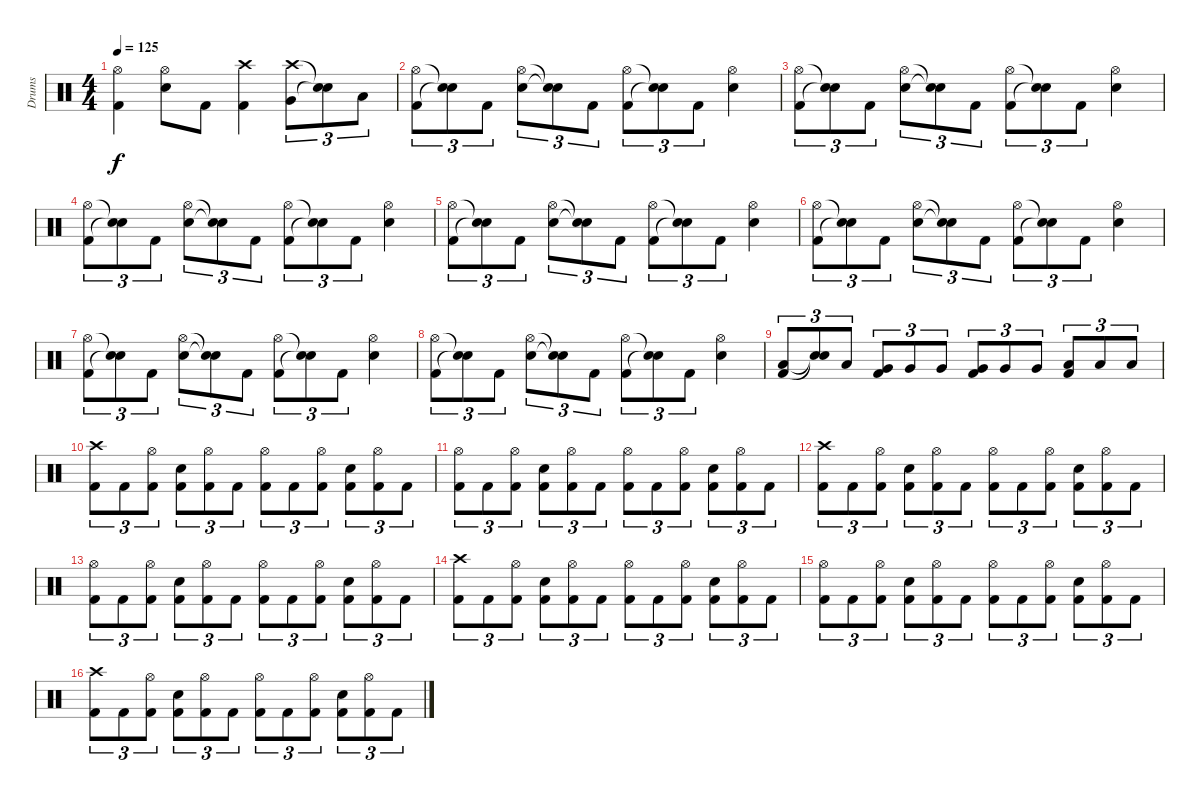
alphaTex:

\track ("Drums" "Drums") {instrument percussion}
\staff {score}
\articulation defaults
\ts (4 4)
\tempo 125
\clef neutral
\ks c
("Hi-Hat (open)" "Kick (hit) 2").4{dy f} ("Hi-Hat (open)" "Snare (hit) 2").8 "Kick (hit) 2".8 ("Crash high (hit)" "Kick (hit) 2").4 ("Crash high (hit)" "Very Low Tom (hit)").8{tu (3 2)} ("Snare (hit)"{t} "Snare (hit)"{t}).8{tu (3 2)} "Low Floor Tom (hit)".8{tu (3 2)} |
("Hi-Hat (open)" "Kick (hit) 2").8{tu (3 2)} ("Snare (hit)"{t} "Snare (hit)"{t}).8{tu (3 2)} "Kick (hit) 2".8{tu (3 2)} ("Hi-Hat (open)" "Snare (hit) 2").8{tu (3 2)} ("Snare (hit)"{t} "Snare (hit)"{t}).8{tu (3 2)} "Kick (hit) 2".8{tu (3 2)} ("Hi-Hat (open)" "Kick (hit) 2").8{tu (3 2)} ("Snare (hit)"{t} "Snare (hit)"{t}).8{tu (3 2)} "Kick (hit) 2".8{tu (3 2)} ("Hi-Hat (open)" "Snare (hit) 2").4 |
("Hi-Hat (open)" "Kick (hit) 2").8{tu (3 2)} ("Snare (hit)"{t} "Snare (hit)"{t}).8{tu (3 2)} "Kick (hit) 2".8{tu (3 2)} ("Hi-Hat (open)" "Snare (hit) 2").8{tu (3 2)} ("Snare (hit)"{t} "Snare (hit)"{t}).8{tu (3 2)} "Kick (hit) 2".8{tu (3 2)} ("Hi-Hat (open)" "Kick (hit) 2").8{tu (3 2)} ("Snare (hit)"{t} "Snare (hit)"{t}).8{tu (3 2)} "Kick (hit) 2".8{tu (3 2)} ("Hi-Hat (open)" "Snare (hit) 2").4 |
("Hi-Hat (open)" "Kick (hit) 2").8{tu (3 2)} ("Snare (hit)"{t} "Snare (hit)"{t}).8{tu (3 2)} "Kick (hit) 2".8{tu (3 2)} ("Hi-Hat (open)" "Snare (hit) 2").8{tu (3 2)} ("Snare (hit)"{t} "Snare (hit)"{t}).8{tu (3 2)} "Kick (hit) 2".8{tu (3 2)} ("Hi-Hat (open)" "Kick (hit) 2").8{tu (3 2)} ("Snare (hit)"{t} "Snare (hit)"{t}).8{tu (3 2)} "Kick (hit) 2".8{tu (3 2)} ("Hi-Hat (open)" "Snare (hit) 2").4 |
("Hi-Hat (open)" "Kick (hit) 2").8{tu (3 2)} ("Snare (hit)"{t} "Snare (hit)"{t}).8{tu (3 2)} "Kick (hit) 2".8{tu (3 2)} ("Hi-Hat (open)" "Snare (hit) 2").8{tu (3 2)} ("Snare (hit)"{t} "Snare (hit)"{t}).8{tu (3 2)} "Kick (hit) 2".8{tu (3 2)} ("Hi-Hat (open)" "Kick (hit) 2").8{tu (3 2)} ("Snare (hit)"{t} "Snare (hit)"{t}).8{tu (3 2)} "Kick (hit) 2".8{tu (3 2)} ("Hi-Hat (open)" "Snare (hit) 2").4 |
("Hi-Hat (open)" "Kick (hit) 2").8{tu (3 2)} ("Snare (hit)"{t} "Snare (hit)"{t}).8{tu (3 2)} "Kick (hit) 2".8{tu (3 2)} ("Hi-Hat (open)" "Snare (hit) 2").8{tu (3 2)} ("Snare (hit)"{t} "Snare (hit)"{t}).8{tu (3 2)} "Kick (hit) 2".8{tu (3 2)} ("Hi-Hat (open)" "Kick (hit) 2").8{tu (3 2)} ("Snare (hit)"{t} "Snare (hit)"{t}).8{tu (3 2)} "Kick (hit) 2".8{tu (3 2)} ("Hi-Hat (open)" "Snare (hit) 2").4 |
("Hi-Hat (open)" "Kick (hit) 2").8{tu (3 2)} ("Snare (hit)"{t} "Snare (hit)"{t}).8{tu (3 2)} "Kick (hit) 2".8{tu (3 2)} ("Hi-Hat (open)" "Snare (hit) 2").8{tu (3 2)} ("Snare (hit)"{t} "Snare (hit)"{t}).8{tu (3 2)} "Kick (hit) 2".8{tu (3 2)} ("Hi-Hat (open)" "Kick (hit) 2").8{tu (3 2)} ("Snare (hit)"{t} "Snare (hit)"{t}).8{tu (3 2)} "Kick (hit) 2".8{tu (3 2)} ("Hi-Hat (open)" "Snare (hit) 2").4 |
("Hi-Hat (open)" "Kick (hit) 2").8{tu (3 2)} ("Snare (hit)"{t} "Snare (hit)"{t}).8{tu (3 2)} "Kick (hit) 2".8{tu (3 2)} ("Hi-Hat (open)" "Snare (hit) 2").8{tu (3 2)} ("Snare (hit)"{t} "Snare (hit)"{t}).8{tu (3 2)} "Kick (hit) 2".8{tu (3 2)} ("Hi-Hat (open)" "Kick (hit) 2").8{tu (3 2)} ("Snare (hit)"{t} "Snare (hit)"{t}).8{tu (3 2)} "Kick (hit) 2".8{tu (3 2)} ("Hi-Hat (open)" "Snare (hit) 2").4 |
("Kick (hit) 2" "Low Tom (hit)").8{tu (3 2)} ("Snare (hit)"{t} "Snare (hit)"{t}).8{tu (3 2)} "Low Tom (hit)".8{tu (3 2)} ("Kick (hit) 2" "Very Low Tom (hit)").8{tu (3 2)} "Very Low Tom (hit)".8{tu (3 2)} "Very Low Tom (hit)".8{tu (3 2)} ("Kick (hit) 2" "Very Low Tom (hit)").8{tu (3 2)} "Very Low Tom (hit)".8{tu (3 2)} "Very Low Tom (hit)".8{tu (3 2)} ("Kick (hit) 2" "Low Floor Tom (hit)").8{tu (3 2)} "Low Floor Tom (hit)".8{tu (3 2)} "Low Floor Tom (hit)".8{tu (3 2)} |
("Crash high (hit)" "Kick (hit) 2").8{tu (3 2)} "Kick (hit) 2".8{tu (3 2)} ("Hi-Hat (open)" "Kick (hit) 2").8{tu (3 2)} ("Snare (hit) 2" "Kick (hit) 2").8{tu (3 2)} ("Hi-Hat (open)" "Kick (hit) 2").8{tu (3 2)} "Kick (hit) 2".8{tu (3 2)} ("Hi-Hat (open)" "Kick (hit) 2").8{tu (3 2)} "Kick (hit) 2".8{tu (3 2)} ("Hi-Hat (open)" "Kick (hit) 2").8{tu (3 2)} ("Snare (hit) 2" "Kick (hit) 2").8{tu (3 2)} ("Hi-Hat (open)" "Kick (hit) 2").8{tu (3 2)} "Kick (hit) 2".8{tu (3 2)} |
("Hi-Hat (open)" "Kick (hit) 2").8{tu (3 2)} "Kick (hit) 2".8{tu (3 2)} ("Hi-Hat (open)" "Kick (hit) 2").8{tu (3 2)} ("Snare (hit) 2" "Kick (hit) 2").8{tu (3 2)} ("Hi-Hat (open)" "Kick (hit) 2").8{tu (3 2)} "Kick (hit) 2".8{tu (3 2)} ("Hi-Hat (open)" "Kick (hit) 2").8{tu (3 2)} "Kick (hit) 2".8{tu (3 2)} ("Hi-Hat (open)" "Kick (hit) 2").8{tu (3 2)} ("Snare (hit) 2" "Kick (hit) 2").8{tu (3 2)} ("Hi-Hat (open)" "Kick (hit) 2").8{tu (3 2)} "Kick (hit) 2".8{tu (3 2)} |
("Crash high (hit)" "Kick (hit) 2").8{tu (3 2)} "Kick (hit) 2".8{tu (3 2)} ("Hi-Hat (open)" "Kick (hit) 2").8{tu (3 2)} ("Snare (hit) 2" "Kick (hit) 2").8{tu (3 2)} ("Hi-Hat (open)" "Kick (hit) 2").8{tu (3 2)} "Kick (hit) 2".8{tu (3 2)} ("Hi-Hat (open)" "Kick (hit) 2").8{tu (3 2)} "Kick (hit) 2".8{tu (3 2)} ("Hi-Hat (open)" "Kick (hit) 2").8{tu (3 2)} ("Snare (hit) 2" "Kick (hit) 2").8{tu (3 2)} ("Hi-Hat (open)" "Kick (hit) 2").8{tu (3 2)} "Kick (hit) 2".8{tu (3 2)} |
("Hi-Hat (open)" "Kick (hit) 2").8{tu (3 2)} "Kick (hit) 2".8{tu (3 2)} ("Hi-Hat (open)" "Kick (hit) 2").8{tu (3 2)} ("Snare (hit) 2" "Kick (hit) 2").8{tu (3 2)} ("Hi-Hat (open)" "Kick (hit) 2").8{tu (3 2)} "Kick (hit) 2".8{tu (3 2)} ("Hi-Hat (open)" "Kick (hit) 2").8{tu (3 2)} "Kick (hit) 2".8{tu (3 2)} ("Hi-Hat (open)" "Kick (hit) 2").8{tu (3 2)} ("Snare (hit) 2" "Kick (hit) 2").8{tu (3 2)} ("Hi-Hat (open)" "Kick (hit) 2").8{tu (3 2)} "Kick (hit) 2".8{tu (3 2)} |
("Crash high (hit)" "Kick (hit) 2").8{tu (3 2)} "Kick (hit) 2".8{tu (3 2)} ("Hi-Hat (open)" "Kick (hit) 2").8{tu (3 2)} ("Snare (hit) 2" "Kick (hit) 2").8{tu (3 2)} ("Hi-Hat (open)" "Kick (hit) 2").8{tu (3 2)} "Kick (hit) 2".8{tu (3 2)} ("Hi-Hat (open)" "Kick (hit) 2").8{tu (3 2)} "Kick (hit) 2".8{tu (3 2)} ("Hi-Hat (open)" "Kick (hit) 2").8{tu (3 2)} ("Snare (hit) 2" "Kick (hit) 2").8{tu (3 2)} ("Hi-Hat (open)" "Kick (hit) 2").8{tu (3 2)} "Kick (hit) 2".8{tu (3 2)} |
("Hi-Hat (open)" "Kick (hit) 2").8{tu (3 2)} "Kick (hit) 2".8{tu (3 2)} ("Hi-Hat (open)" "Kick (hit) 2").8{tu (3 2)} ("Snare (hit) 2" "Kick (hit) 2").8{tu (3 2)} ("Hi-Hat (open)" "Kick (hit) 2").8{tu (3 2)} "Kick (hit) 2".8{tu (3 2)} ("Hi-Hat (open)" "Kick (hit) 2").8{tu (3 2)} "Kick (hit) 2".8{tu (3 2)} ("Hi-Hat (open)" "Kick (hit) 2").8{tu (3 2)} ("Snare (hit) 2" "Kick (hit) 2").8{tu (3 2)} ("Hi-Hat (open)" "Kick (hit) 2").8{tu (3 2)} "Kick (hit) 2".8{tu (3 2)} |
("Crash high (hit)" "Kick (hit) 2").8{tu (3 2)} "Kick (hit) 2".8{tu (3 2)} ("Hi-Hat (open)" "Kick (hit) 2").8{tu (3 2)} ("Snare (hit) 2" "Kick (hit) 2").8{tu (3 2)} ("Hi-Hat (open)" "Kick (hit) 2").8{tu (3 2)} "Kick (hit) 2".8{tu (3 2)} ("Hi-Hat (open)" "Kick (hit) 2").8{tu (3 2)} "Kick (hit) 2".8{tu (3 2)} ("Hi-Hat (open)" "Kick (hit) 2").8{tu (3 2)} ("Snare (hit) 2" "Kick (hit) 2").8{tu (3 2)} ("Hi-Hat (open)" "Kick (hit) 2").8{tu (3 2)} "Kick (hit) 2".8{tu (3 2)}
